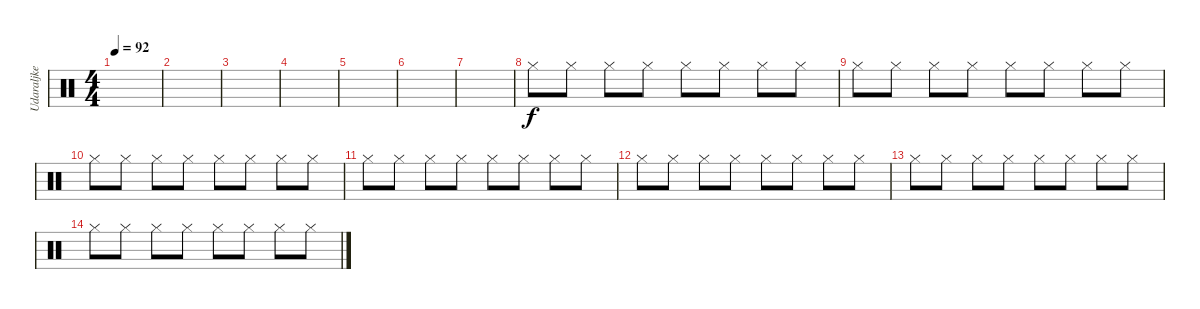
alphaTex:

\track ("Udaraljke" "Udaraljke") {instrument percussion}
\staff {score}
\articulation defaults
\ts (4 4)
\tempo 92
\clef neutral
\ks c
|
|
|
|
|
|
|
"Hi-Hat (closed)".8 "Hi-Hat (closed)".8 "Hi-Hat (closed)".8 "Hi-Hat (closed)".8 "Hi-Hat (closed)".8 "Hi-Hat (closed)".8 "Hi-Hat (closed)".8 "Hi-Hat (closed)".8 |
"Hi-Hat (closed)".8 "Hi-Hat (closed)".8 "Hi-Hat (closed)".8 "Hi-Hat (closed)".8 "Hi-Hat (closed)".8 "Hi-Hat (closed)".8 "Hi-Hat (closed)".8 "Hi-Hat (closed)".8 |
"Hi-Hat (closed)".8 "Hi-Hat (closed)".8 "Hi-Hat (closed)".8 "Hi-Hat (closed)".8 "Hi-Hat (closed)".8 "Hi-Hat (closed)".8 "Hi-Hat (closed)".8 "Hi-Hat (closed)".8 |
"Hi-Hat (closed)".8 "Hi-Hat (closed)".8 "Hi-Hat (closed)".8 "Hi-Hat (closed)".8 "Hi-Hat (closed)".8 "Hi-Hat (closed)".8 "Hi-Hat (closed)".8 "Hi-Hat (closed)".8 |
"Hi-Hat (closed)".8 "Hi-Hat (closed)".8 "Hi-Hat (closed)".8 "Hi-Hat (closed)".8 "Hi-Hat (closed)".8 "Hi-Hat (closed)".8 "Hi-Hat (closed)".8 "Hi-Hat (closed)".8 |
"Hi-Hat (closed)".8 "Hi-Hat (closed)".8 "Hi-Hat (closed)".8 "Hi-Hat (closed)".8 "Hi-Hat (closed)".8 "Hi-Hat (closed)".8 "Hi-Hat (closed)".8 "Hi-Hat (closed)".8 |
"Hi-Hat (closed)".8 "Hi-Hat (closed)".8 "Hi-Hat (closed)".8 "Hi-Hat (closed)".8 "Hi-Hat (closed)".8 "Hi-Hat (closed)".8 "Hi-Hat (closed)".8 "Hi-Hat (closed)".8
